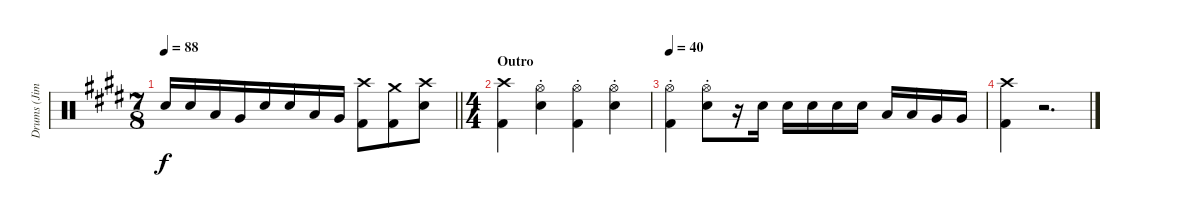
\track ("Drums (Jimmy)" "Drums (Jim") {instrument percussion}
\staff {score}
\articulation defaults
\ts (7 8)
\tempo 88
\clef neutral
\barLineRight lightlight
\ks c#minor "Snare (hit) 2".16{dy f} "Snare (hit) 2".16 "Low Tom (hit)".16 "Very Low Tom (hit)".16 "Snare (hit) 2".16 "Snare (hit) 2".16 "Low Tom (hit)".16 "Very Low Tom (hit)".16
("Crash high (hit)" "Kick (hit) 2").8 ("Crash medium (hit)" "Kick (hit) 2").8 ("Crash high (hit)" "Snare (hit) 2").8 |
\ts (4 4)
\section ("" "Outro")
\ks e
("Crash high (hit)" "Kick (hit) 2").4 ("Hi-Hat (open)"{st} "Snare (hit) 2").4 ("Hi-Hat (open)"{st} "Kick (hit) 2").4 ("Hi-Hat (open)"{st} "Snare (hit) 2").4 |
\tempo 40
\ks c#minor
("Hi-Hat (open)"{st} "Kick (hit) 2").4 ("Hi-Hat (open)"{st} "Snare (hit) 2").8 r.16 "Snare (hit) 2".16 "Snare (hit) 2".16 "Snare (hit) 2".16 "Snare (hit) 2".16 "Snare (hit) 2".16 "Low Tom (hit)".16 "Low Tom (hit)".16 "Very Low Tom (hit)".16 "Very Low Tom (hit)".16 |
("Crash high (hit)" "Kick (hit) 2").4 r.2{d}
